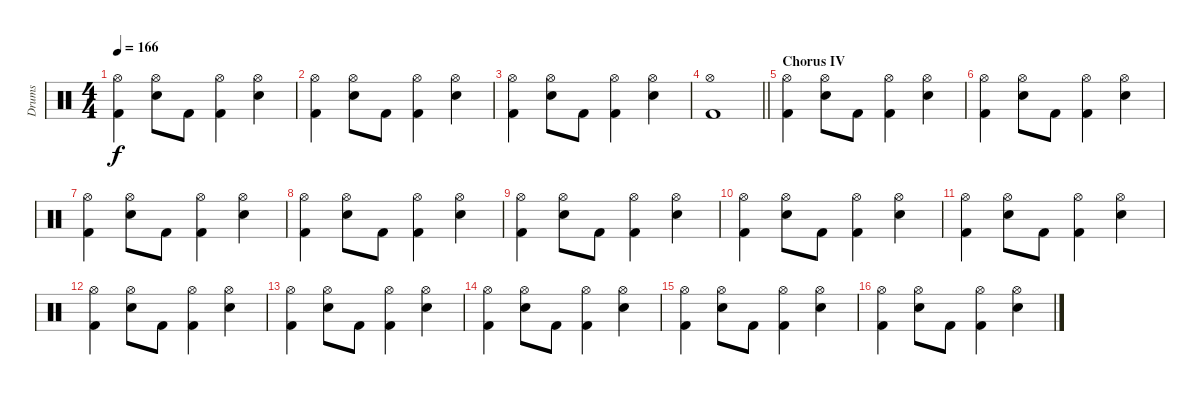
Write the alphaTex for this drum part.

\track ("Drums" "Drums") {instrument percussion}
\staff {score}
\articulation defaults
\ts (4 4)
\tempo 166
\clef neutral
\ks c
("Hi-Hat (open)" "Kick (hit) 2").4{dy f} ("Hi-Hat (open)" "Snare (hit) 2").8 "Kick (hit) 2".8 ("Hi-Hat (open)" "Kick (hit) 2").4 ("Hi-Hat (open)" "Snare (hit) 2").4 |
("Hi-Hat (open)" "Kick (hit) 2").4 ("Hi-Hat (open)" "Snare (hit) 2").8 "Kick (hit) 2".8 ("Hi-Hat (open)" "Kick (hit) 2").4 ("Hi-Hat (open)" "Snare (hit) 2").4 |
("Hi-Hat (open)" "Kick (hit) 2").4 ("Hi-Hat (open)" "Snare (hit) 2").8 "Kick (hit) 2".8 ("Hi-Hat (open)" "Kick (hit) 2").4 ("Hi-Hat (open)" "Snare (hit) 2").4 |
\barLineRight lightlight
("Hi-Hat (open)" "Kick (hit) 2").1 |
\section ("" "Chorus IV")
("Hi-Hat (open)" "Kick (hit) 2").4 ("Hi-Hat (open)" "Snare (hit) 2").8 "Kick (hit) 2".8 ("Hi-Hat (open)" "Kick (hit) 2").4 ("Hi-Hat (open)" "Snare (hit) 2").4 |
("Hi-Hat (open)" "Kick (hit) 2").4 ("Hi-Hat (open)" "Snare (hit) 2").8 "Kick (hit) 2".8 ("Hi-Hat (open)" "Kick (hit) 2").4 ("Hi-Hat (open)" "Snare (hit) 2").4 |
("Hi-Hat (open)" "Kick (hit) 2").4 ("Hi-Hat (open)" "Snare (hit) 2").8 "Kick (hit) 2".8 ("Hi-Hat (open)" "Kick (hit) 2").4 ("Hi-Hat (open)" "Snare (hit) 2").4 |
("Hi-Hat (open)" "Kick (hit) 2").4 ("Hi-Hat (open)" "Snare (hit) 2").8 "Kick (hit) 2".8 ("Hi-Hat (open)" "Kick (hit) 2").4 ("Hi-Hat (open)" "Snare (hit) 2").4 |
("Hi-Hat (open)" "Kick (hit) 2").4 ("Hi-Hat (open)" "Snare (hit) 2").8 "Kick (hit) 2".8 ("Hi-Hat (open)" "Kick (hit) 2").4 ("Hi-Hat (open)" "Snare (hit) 2").4 |
("Hi-Hat (open)" "Kick (hit) 2").4 ("Hi-Hat (open)" "Snare (hit) 2").8 "Kick (hit) 2".8 ("Hi-Hat (open)" "Kick (hit) 2").4 ("Hi-Hat (open)" "Snare (hit) 2").4 |
("Hi-Hat (open)" "Kick (hit) 2").4 ("Hi-Hat (open)" "Snare (hit) 2").8 "Kick (hit) 2".8 ("Hi-Hat (open)" "Kick (hit) 2").4 ("Hi-Hat (open)" "Snare (hit) 2").4 |
("Hi-Hat (open)" "Kick (hit) 2").4 ("Hi-Hat (open)" "Snare (hit) 2").8 "Kick (hit) 2".8 ("Hi-Hat (open)" "Kick (hit) 2").4 ("Hi-Hat (open)" "Snare (hit) 2").4 |
("Hi-Hat (open)" "Kick (hit) 2").4 ("Hi-Hat (open)" "Snare (hit) 2").8 "Kick (hit) 2".8 ("Hi-Hat (open)" "Kick (hit) 2").4 ("Hi-Hat (open)" "Snare (hit) 2").4 |
("Hi-Hat (open)" "Kick (hit) 2").4 ("Hi-Hat (open)" "Snare (hit) 2").8 "Kick (hit) 2".8 ("Hi-Hat (open)" "Kick (hit) 2").4 ("Hi-Hat (open)" "Snare (hit) 2").4 |
("Hi-Hat (open)" "Kick (hit) 2").4 ("Hi-Hat (open)" "Snare (hit) 2").8 "Kick (hit) 2".8 ("Hi-Hat (open)" "Kick (hit) 2").4 ("Hi-Hat (open)" "Snare (hit) 2").4 |
("Hi-Hat (open)" "Kick (hit) 2").4 ("Hi-Hat (open)" "Snare (hit) 2").8 "Kick (hit) 2".8 ("Hi-Hat (open)" "Kick (hit) 2").4 ("Hi-Hat (open)" "Snare (hit) 2").4
